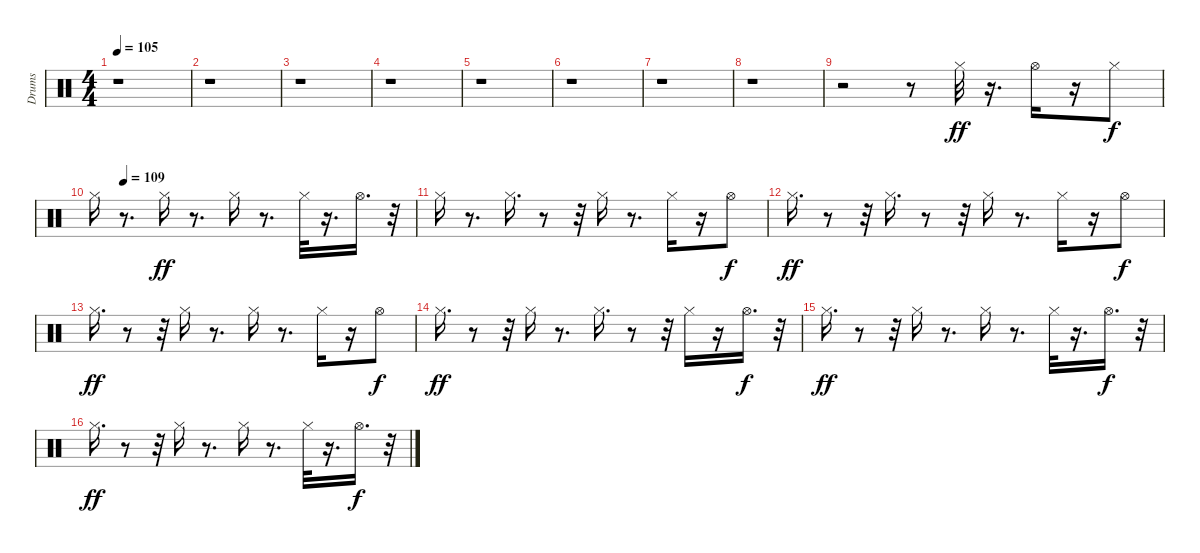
\track ("Drums" "Drums") {instrument percussion}
\staff {score}
\articulation defaults
\ts (4 4)
\tempo 105
\clef neutral
\ks c
r.1{dy ff} |
r.1 |
r.1 |
r.1 |
r.1 |
r.1 |
r.1 |
r.1 |
r.2 r.8 "Hi-Hat (closed)".32 r.16{d} "Hi-Hat (open)".16 r.16 "Hi-Hat (closed)".8{dy f} |
\tempo (109 0.09375)
"Hi-Hat (closed)".16 r.8{d} "Hi-Hat (closed)".16{dy ff} r.8{d} "Hi-Hat (closed)".16 r.8{d} "Hi-Hat (closed)".32 r.16{d} "Hi-Hat (open)".16{d} r.32 |
"Hi-Hat (closed)".16 r.8{d} "Hi-Hat (closed)".16{d} r.8 r.32 "Hi-Hat (closed)".16 r.8{d} "Hi-Hat (closed)".16 r.16 "Hi-Hat (open)".8{dy f} |
"Hi-Hat (closed)".16{d dy ff} r.8 r.32 "Hi-Hat (closed)".16{d} r.8 r.32 "Hi-Hat (closed)".16 r.8{d} "Hi-Hat (closed)".16 r.16 "Hi-Hat (open)".8{dy f} |
"Hi-Hat (closed)".16{d dy ff} r.8 r.32 "Hi-Hat (closed)".16 r.8{d} "Hi-Hat (closed)".16 r.8{d} "Hi-Hat (closed)".16 r.16 "Hi-Hat (open)".8{dy f} |
"Hi-Hat (closed)".16{d dy ff} r.8 r.32 "Hi-Hat (closed)".16 r.8{d} "Hi-Hat (closed)".16{d} r.8 r.32 "Hi-Hat (closed)".16 r.16 "Hi-Hat (open)".16{d dy f} r.32 |
"Hi-Hat (closed)".16{d dy ff} r.8 r.32 "Hi-Hat (closed)".16 r.8{d} "Hi-Hat (closed)".16 r.8{d} "Hi-Hat (closed)".32 r.16{d} "Hi-Hat (open)".16{d dy f} r.32 |
"Hi-Hat (closed)".16{d dy ff} r.8 r.32 "Hi-Hat (closed)".16 r.8{d} "Hi-Hat (closed)".16 r.8{d} "Hi-Hat (closed)".32 r.16{d} "Hi-Hat (open)".16{d dy f} r.32
